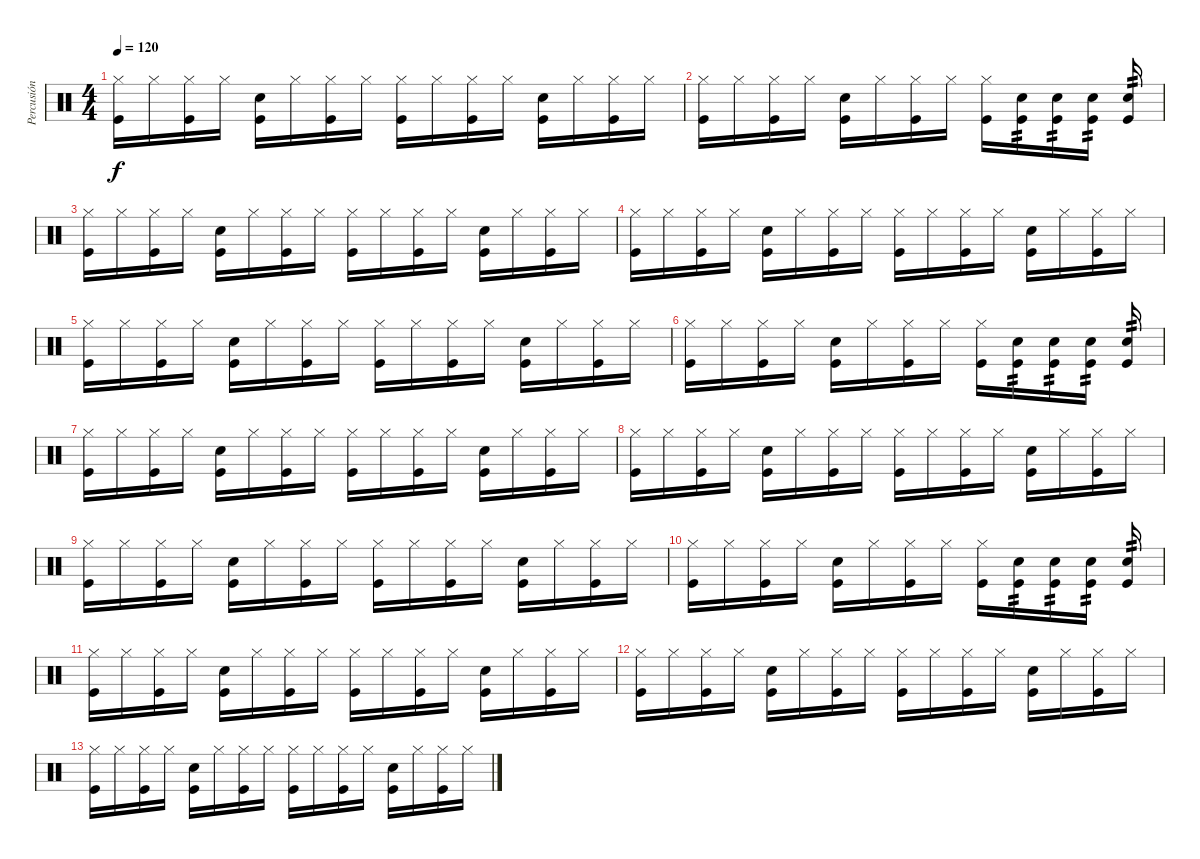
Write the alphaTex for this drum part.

\track ("Percusión" "Percusión") {instrument percussion}
\staff {score}
\articulation defaults
\ts (4 4)
\tempo 120
\clef neutral
\ks c
("Hi-Hat (closed)" "Kick (hit)").16{dy f} "Hi-Hat (closed)".16 ("Hi-Hat (closed)" "Kick (hit)").16 "Hi-Hat (closed)".16 ("Snare (hit) 2" "Kick (hit)").16 "Hi-Hat (closed)".16 ("Hi-Hat (closed)" "Kick (hit)").16 "Hi-Hat (closed)".16 ("Hi-Hat (closed)" "Kick (hit)").16 "Hi-Hat (closed)".16 ("Hi-Hat (closed)" "Kick (hit)").16 "Hi-Hat (closed)".16 ("Snare (hit) 2" "Kick (hit)").16 "Hi-Hat (closed)".16 ("Hi-Hat (closed)" "Kick (hit)").16 "Hi-Hat (closed)".16 |
("Hi-Hat (closed)" "Kick (hit)").16 "Hi-Hat (closed)".16 ("Hi-Hat (closed)" "Kick (hit)").16 "Hi-Hat (closed)".16 ("Snare (hit) 2" "Kick (hit)").16 "Hi-Hat (closed)".16 ("Hi-Hat (closed)" "Kick (hit)").16 "Hi-Hat (closed)".16 ("Hi-Hat (closed)" "Kick (hit)").16 ("Snare (hit) 2" "Kick (hit)").16{tp 2} ("Snare (hit) 2" "Kick (hit)").16{tp 2} ("Snare (hit) 2" "Kick (hit)").16{tp 2} ("Snare (hit) 2" "Kick (hit)").16{tp 2} |
("Hi-Hat (closed)" "Kick (hit)").16 "Hi-Hat (closed)".16 ("Hi-Hat (closed)" "Kick (hit)").16 "Hi-Hat (closed)".16 ("Snare (hit) 2" "Kick (hit)").16 "Hi-Hat (closed)".16 ("Hi-Hat (closed)" "Kick (hit)").16 "Hi-Hat (closed)".16 ("Hi-Hat (closed)" "Kick (hit)").16 "Hi-Hat (closed)".16 ("Hi-Hat (closed)" "Kick (hit)").16 "Hi-Hat (closed)".16 ("Snare (hit) 2" "Kick (hit)").16 "Hi-Hat (closed)".16 ("Hi-Hat (closed)" "Kick (hit)").16 "Hi-Hat (closed)".16 |
("Hi-Hat (closed)" "Kick (hit)").16 "Hi-Hat (closed)".16 ("Hi-Hat (closed)" "Kick (hit)").16 "Hi-Hat (closed)".16 ("Snare (hit) 2" "Kick (hit)").16 "Hi-Hat (closed)".16 ("Hi-Hat (closed)" "Kick (hit)").16 "Hi-Hat (closed)".16 ("Hi-Hat (closed)" "Kick (hit)").16 "Hi-Hat (closed)".16 ("Hi-Hat (closed)" "Kick (hit)").16 "Hi-Hat (closed)".16 ("Snare (hit) 2" "Kick (hit)").16 "Hi-Hat (closed)".16 ("Hi-Hat (closed)" "Kick (hit)").16 "Hi-Hat (closed)".16 |
("Hi-Hat (closed)" "Kick (hit)").16 "Hi-Hat (closed)".16 ("Hi-Hat (closed)" "Kick (hit)").16 "Hi-Hat (closed)".16 ("Snare (hit) 2" "Kick (hit)").16 "Hi-Hat (closed)".16 ("Hi-Hat (closed)" "Kick (hit)").16 "Hi-Hat (closed)".16 ("Hi-Hat (closed)" "Kick (hit)").16 "Hi-Hat (closed)".16 ("Hi-Hat (closed)" "Kick (hit)").16 "Hi-Hat (closed)".16 ("Snare (hit) 2" "Kick (hit)").16 "Hi-Hat (closed)".16 ("Hi-Hat (closed)" "Kick (hit)").16 "Hi-Hat (closed)".16 |
("Hi-Hat (closed)" "Kick (hit)").16 "Hi-Hat (closed)".16 ("Hi-Hat (closed)" "Kick (hit)").16 "Hi-Hat (closed)".16 ("Snare (hit) 2" "Kick (hit)").16 "Hi-Hat (closed)".16 ("Hi-Hat (closed)" "Kick (hit)").16 "Hi-Hat (closed)".16 ("Hi-Hat (closed)" "Kick (hit)").16 ("Snare (hit) 2" "Kick (hit)").16{tp 2} ("Snare (hit) 2" "Kick (hit)").16{tp 2} ("Snare (hit) 2" "Kick (hit)").16{tp 2} ("Snare (hit) 2" "Kick (hit)").16{tp 2} |
("Hi-Hat (closed)" "Kick (hit)").16 "Hi-Hat (closed)".16 ("Hi-Hat (closed)" "Kick (hit)").16 "Hi-Hat (closed)".16 ("Snare (hit) 2" "Kick (hit)").16 "Hi-Hat (closed)".16 ("Hi-Hat (closed)" "Kick (hit)").16 "Hi-Hat (closed)".16 ("Hi-Hat (closed)" "Kick (hit)").16 "Hi-Hat (closed)".16 ("Hi-Hat (closed)" "Kick (hit)").16 "Hi-Hat (closed)".16 ("Snare (hit) 2" "Kick (hit)").16 "Hi-Hat (closed)".16 ("Hi-Hat (closed)" "Kick (hit)").16 "Hi-Hat (closed)".16 |
("Hi-Hat (closed)" "Kick (hit)").16 "Hi-Hat (closed)".16 ("Hi-Hat (closed)" "Kick (hit)").16 "Hi-Hat (closed)".16 ("Snare (hit) 2" "Kick (hit)").16 "Hi-Hat (closed)".16 ("Hi-Hat (closed)" "Kick (hit)").16 "Hi-Hat (closed)".16 ("Hi-Hat (closed)" "Kick (hit)").16 "Hi-Hat (closed)".16 ("Hi-Hat (closed)" "Kick (hit)").16 "Hi-Hat (closed)".16 ("Snare (hit) 2" "Kick (hit)").16 "Hi-Hat (closed)".16 ("Hi-Hat (closed)" "Kick (hit)").16 "Hi-Hat (closed)".16 |
("Hi-Hat (closed)" "Kick (hit)").16 "Hi-Hat (closed)".16 ("Hi-Hat (closed)" "Kick (hit)").16 "Hi-Hat (closed)".16 ("Snare (hit) 2" "Kick (hit)").16 "Hi-Hat (closed)".16 ("Hi-Hat (closed)" "Kick (hit)").16 "Hi-Hat (closed)".16 ("Hi-Hat (closed)" "Kick (hit)").16 "Hi-Hat (closed)".16 ("Hi-Hat (closed)" "Kick (hit)").16 "Hi-Hat (closed)".16 ("Snare (hit) 2" "Kick (hit)").16 "Hi-Hat (closed)".16 ("Hi-Hat (closed)" "Kick (hit)").16 "Hi-Hat (closed)".16 |
("Hi-Hat (closed)" "Kick (hit)").16 "Hi-Hat (closed)".16 ("Hi-Hat (closed)" "Kick (hit)").16 "Hi-Hat (closed)".16 ("Snare (hit) 2" "Kick (hit)").16 "Hi-Hat (closed)".16 ("Hi-Hat (closed)" "Kick (hit)").16 "Hi-Hat (closed)".16 ("Hi-Hat (closed)" "Kick (hit)").16 ("Snare (hit) 2" "Kick (hit)").16{tp 2} ("Snare (hit) 2" "Kick (hit)").16{tp 2} ("Snare (hit) 2" "Kick (hit)").16{tp 2} ("Snare (hit) 2" "Kick (hit)").16{tp 2} |
("Hi-Hat (closed)" "Kick (hit)").16 "Hi-Hat (closed)".16 ("Hi-Hat (closed)" "Kick (hit)").16 "Hi-Hat (closed)".16 ("Snare (hit) 2" "Kick (hit)").16 "Hi-Hat (closed)".16 ("Hi-Hat (closed)" "Kick (hit)").16 "Hi-Hat (closed)".16 ("Hi-Hat (closed)" "Kick (hit)").16 "Hi-Hat (closed)".16 ("Hi-Hat (closed)" "Kick (hit)").16 "Hi-Hat (closed)".16 ("Snare (hit) 2" "Kick (hit)").16 "Hi-Hat (closed)".16 ("Hi-Hat (closed)" "Kick (hit)").16 "Hi-Hat (closed)".16 |
("Hi-Hat (closed)" "Kick (hit)").16 "Hi-Hat (closed)".16 ("Hi-Hat (closed)" "Kick (hit)").16 "Hi-Hat (closed)".16 ("Snare (hit) 2" "Kick (hit)").16 "Hi-Hat (closed)".16 ("Hi-Hat (closed)" "Kick (hit)").16 "Hi-Hat (closed)".16 ("Hi-Hat (closed)" "Kick (hit)").16 "Hi-Hat (closed)".16 ("Hi-Hat (closed)" "Kick (hit)").16 "Hi-Hat (closed)".16 ("Snare (hit) 2" "Kick (hit)").16 "Hi-Hat (closed)".16 ("Hi-Hat (closed)" "Kick (hit)").16 "Hi-Hat (closed)".16 |
("Hi-Hat (closed)" "Kick (hit)").16 "Hi-Hat (closed)".16 ("Hi-Hat (closed)" "Kick (hit)").16 "Hi-Hat (closed)".16 ("Snare (hit) 2" "Kick (hit)").16 "Hi-Hat (closed)".16 ("Hi-Hat (closed)" "Kick (hit)").16 "Hi-Hat (closed)".16 ("Hi-Hat (closed)" "Kick (hit)").16 "Hi-Hat (closed)".16 ("Hi-Hat (closed)" "Kick (hit)").16 "Hi-Hat (closed)".16 ("Snare (hit) 2" "Kick (hit)").16 "Hi-Hat (closed)".16 ("Hi-Hat (closed)" "Kick (hit)").16 "Hi-Hat (closed)".16
